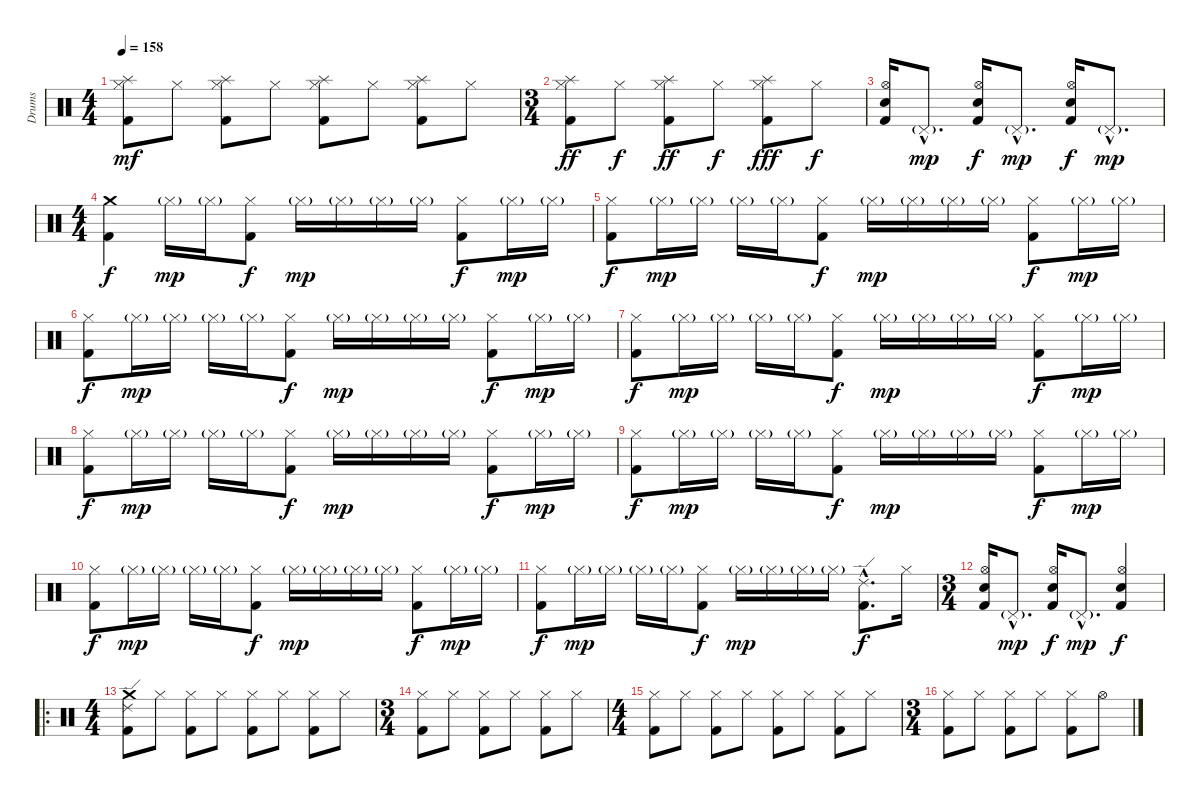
\track ("Drums" "Drums") {instrument percussion}
\staff {score}
\articulation defaults
\ts (4 4)
\tempo 158
\clef neutral
\ks c
("Hi-Hat (closed)" "Splash (hit)" "Kick (hit) 2").8{dy mf} "Hi-Hat (closed)".8 ("Hi-Hat (closed)" "Splash (hit)" "Kick (hit) 2").8 "Hi-Hat (closed)".8 ("Hi-Hat (closed)" "Splash (hit)" "Kick (hit) 2").8 "Hi-Hat (closed)".8 ("Hi-Hat (closed)" "Splash (hit)" "Kick (hit) 2").8 "Hi-Hat (closed)".8 |
\ts (3 4)
("Hi-Hat (closed)" "Splash (hit)" "Kick (hit) 2").8{dy ff} "Hi-Hat (closed)".8{dy f} ("Hi-Hat (closed)" "Splash (hit)" "Kick (hit) 2").8{dy ff} "Hi-Hat (closed)".8{dy f} ("Hi-Hat (closed)" "Splash (hit)" "Kick (hit) 2").8{dy fff} "Hi-Hat (closed)".8{dy f} |
("Hi-Hat (open)" "Snare (hit) 2" "Kick (hit) 2").16 "Pedal Hi-Hat (hit)"{g hac}.8{d dy mp} ("Hi-Hat (open)" "Snare (hit) 2" "Kick (hit) 2").16{dy f} "Pedal Hi-Hat (hit)"{g hac}.8{d dy mp} ("Hi-Hat (open)" "Snare (hit) 2" "Kick (hit) 2").16{dy f} "Pedal Hi-Hat (hit)"{g hac}.8{d dy mp} |
\ts (4 4)
("Crash medium (hit)" "Kick (hit) 2").4{dy f} "Hi-Hat (closed)"{g}.16{dy mp} "Hi-Hat (closed)"{g}.16 ("Hi-Hat (closed)" "Kick (hit) 2").8{dy f} "Hi-Hat (closed)"{g}.16{dy mp} "Hi-Hat (closed)"{g}.16 "Hi-Hat (closed)"{g}.16 "Hi-Hat (closed)"{g}.16 ("Hi-Hat (closed)" "Kick (hit) 2").8{dy f} "Hi-Hat (closed)"{g}.16{dy mp} "Hi-Hat (closed)"{g}.16 |
("Hi-Hat (closed)" "Kick (hit) 2").8{dy f} "Hi-Hat (closed)"{g}.16{dy mp} "Hi-Hat (closed)"{g}.16 "Hi-Hat (closed)"{g}.16 "Hi-Hat (closed)"{g}.16 ("Hi-Hat (closed)" "Kick (hit) 2").8{dy f} "Hi-Hat (closed)"{g}.16{dy mp} "Hi-Hat (closed)"{g}.16 "Hi-Hat (closed)"{g}.16 "Hi-Hat (closed)"{g}.16 ("Hi-Hat (closed)" "Kick (hit) 2").8{dy f} "Hi-Hat (closed)"{g}.16{dy mp} "Hi-Hat (closed)"{g}.16 |
("Hi-Hat (closed)" "Kick (hit) 2").8{dy f} "Hi-Hat (closed)"{g}.16{dy mp} "Hi-Hat (closed)"{g}.16 "Hi-Hat (closed)"{g}.16 "Hi-Hat (closed)"{g}.16 ("Hi-Hat (closed)" "Kick (hit) 2").8{dy f} "Hi-Hat (closed)"{g}.16{dy mp} "Hi-Hat (closed)"{g}.16 "Hi-Hat (closed)"{g}.16 "Hi-Hat (closed)"{g}.16 ("Hi-Hat (closed)" "Kick (hit) 2").8{dy f} "Hi-Hat (closed)"{g}.16{dy mp} "Hi-Hat (closed)"{g}.16 |
("Hi-Hat (closed)" "Kick (hit) 2").8{dy f} "Hi-Hat (closed)"{g}.16{dy mp} "Hi-Hat (closed)"{g}.16 "Hi-Hat (closed)"{g}.16 "Hi-Hat (closed)"{g}.16 ("Hi-Hat (closed)" "Kick (hit) 2").8{dy f} "Hi-Hat (closed)"{g}.16{dy mp} "Hi-Hat (closed)"{g}.16 "Hi-Hat (closed)"{g}.16 "Hi-Hat (closed)"{g}.16 ("Hi-Hat (closed)" "Kick (hit) 2").8{dy f} "Hi-Hat (closed)"{g}.16{dy mp} "Hi-Hat (closed)"{g}.16 |
("Hi-Hat (closed)" "Kick (hit) 2").8{dy f} "Hi-Hat (closed)"{g}.16{dy mp} "Hi-Hat (closed)"{g}.16 "Hi-Hat (closed)"{g}.16 "Hi-Hat (closed)"{g}.16 ("Hi-Hat (closed)" "Kick (hit) 2").8{dy f} "Hi-Hat (closed)"{g}.16{dy mp} "Hi-Hat (closed)"{g}.16 "Hi-Hat (closed)"{g}.16 "Hi-Hat (closed)"{g}.16 ("Hi-Hat (closed)" "Kick (hit) 2").8{dy f} "Hi-Hat (closed)"{g}.16{dy mp} "Hi-Hat (closed)"{g}.16 |
("Hi-Hat (closed)" "Kick (hit) 2").8{dy f} "Hi-Hat (closed)"{g}.16{dy mp} "Hi-Hat (closed)"{g}.16 "Hi-Hat (closed)"{g}.16 "Hi-Hat (closed)"{g}.16 ("Hi-Hat (closed)" "Kick (hit) 2").8{dy f} "Hi-Hat (closed)"{g}.16{dy mp} "Hi-Hat (closed)"{g}.16 "Hi-Hat (closed)"{g}.16 "Hi-Hat (closed)"{g}.16 ("Hi-Hat (closed)" "Kick (hit) 2").8{dy f} "Hi-Hat (closed)"{g}.16{dy mp} "Hi-Hat (closed)"{g}.16 |
("Hi-Hat (closed)" "Kick (hit) 2").8{dy f} "Hi-Hat (closed)"{g}.16{dy mp} "Hi-Hat (closed)"{g}.16 "Hi-Hat (closed)"{g}.16 "Hi-Hat (closed)"{g}.16 ("Hi-Hat (closed)" "Kick (hit) 2").8{dy f} "Hi-Hat (closed)"{g}.16{dy mp} "Hi-Hat (closed)"{g}.16 "Hi-Hat (closed)"{g}.16 "Hi-Hat (closed)"{g}.16 ("Hi-Hat (closed)" "Kick (hit) 2").8{dy f} "Hi-Hat (closed)"{g}.16{dy mp} "Hi-Hat (closed)"{g}.16 |
("Hi-Hat (closed)" "Kick (hit) 2").8{dy f} "Hi-Hat (closed)"{g}.16{dy mp} "Hi-Hat (closed)"{g}.16 "Hi-Hat (closed)"{g}.16 "Hi-Hat (closed)"{g}.16 ("Hi-Hat (closed)" "Kick (hit) 2").8{dy f} "Hi-Hat (closed)"{g}.16{dy mp} "Hi-Hat (closed)"{g}.16 "Hi-Hat (closed)"{g}.16 "Hi-Hat (closed)"{g}.16 ("Ride (edge) 2"{hac} "Kick (hit) 2"{hac}).8{d dy f} "Hi-Hat (closed)".16 |
\ts (3 4)
("Hi-Hat (open)" "Snare (hit) 2" "Kick (hit) 2").16 "Pedal Hi-Hat (hit)"{g hac}.8{d dy mp} ("Hi-Hat (open)" "Snare (hit) 2" "Kick (hit) 2").16{dy f} "Pedal Hi-Hat (hit)"{g hac}.8{d dy mp} ("Hi-Hat (open)" "Snare (hit) 2" "Kick (hit) 2").4{dy f} |
\ro
\ts (4 4)
("Ride (edge) 2" "Crash medium (hit)" "Kick (hit) 2").8 "Hi-Hat (closed)".8 ("Hi-Hat (closed)" "Kick (hit) 2").8 "Hi-Hat (closed)".8 ("Hi-Hat (closed)" "Kick (hit) 2").8 "Hi-Hat (closed)".8 ("Hi-Hat (closed)" "Kick (hit) 2").8 "Hi-Hat (closed)".8 |
\ts (3 4)
("Hi-Hat (closed)" "Kick (hit) 2").8 "Hi-Hat (closed)".8 ("Hi-Hat (closed)" "Kick (hit) 2").8 "Hi-Hat (closed)".8 ("Hi-Hat (closed)" "Kick (hit) 2").8 "Hi-Hat (closed)".8 |
\ts (4 4)
("Hi-Hat (closed)" "Kick (hit) 2").8 "Hi-Hat (closed)".8 ("Hi-Hat (closed)" "Kick (hit) 2").8 "Hi-Hat (closed)".8 ("Hi-Hat (closed)" "Kick (hit) 2").8 "Hi-Hat (closed)".8 ("Hi-Hat (closed)" "Kick (hit) 2").8 "Hi-Hat (closed)".8 |
\ts (3 4)
("Hi-Hat (closed)" "Kick (hit) 2").8 "Hi-Hat (closed)".8 ("Hi-Hat (closed)" "Kick (hit) 2").8 "Hi-Hat (closed)".8 ("Hi-Hat (closed)" "Kick (hit) 2").8 "Hi-Hat (open)".8
